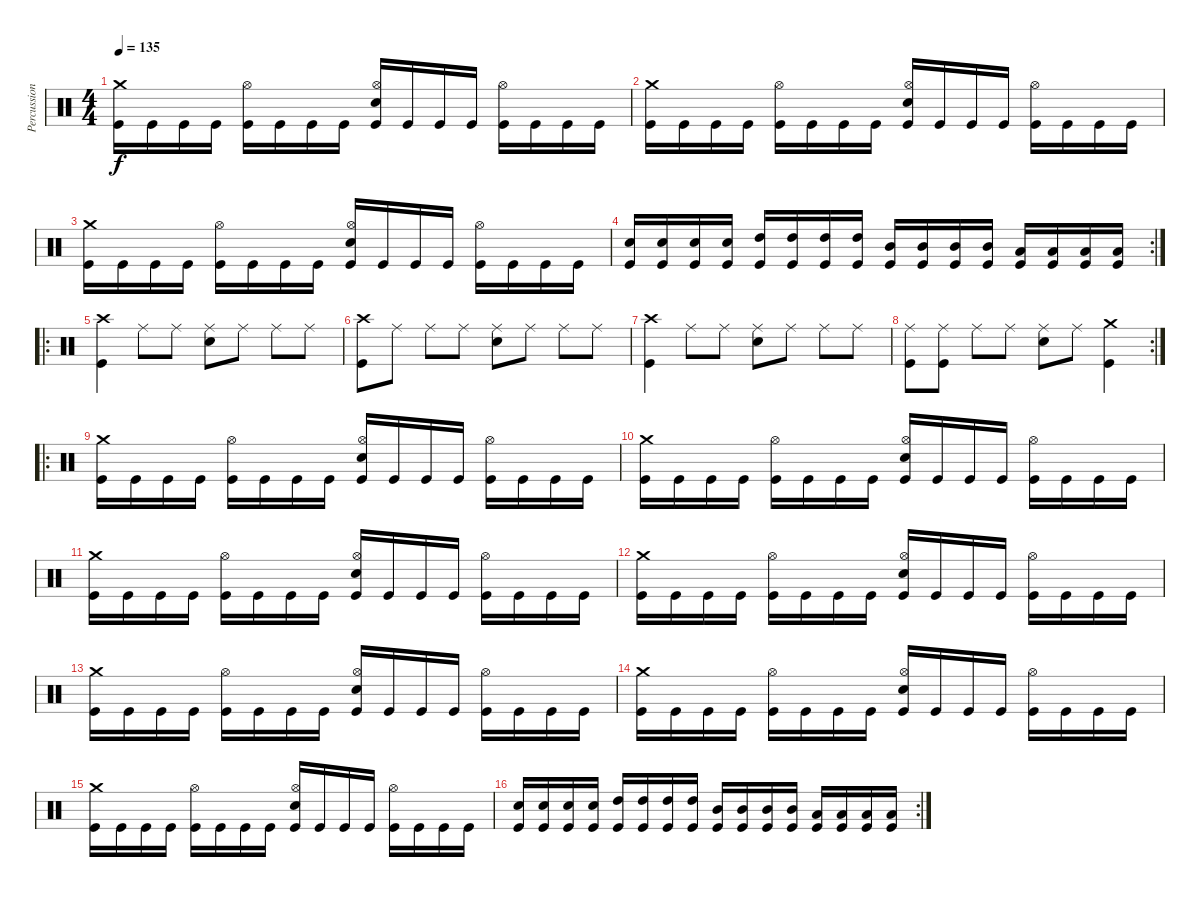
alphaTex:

\track ("Percussion" "Percussion") {instrument percussion}
\staff {score}
\articulation defaults
\ts (4 4)
\tempo 135
\clef neutral
\ks c
("Crash medium (hit)" "Kick (hit)").16{dy f} "Kick (hit)".16 "Kick (hit)".16 "Kick (hit)".16 ("Hi-Hat (open)" "Kick (hit)").16 "Kick (hit)".16 "Kick (hit)".16 "Kick (hit)".16 ("Hi-Hat (open)" "Electric Snare (hit)" "Kick (hit)").16 "Kick (hit)".16 "Kick (hit)".16 "Kick (hit)".16 ("Hi-Hat (open)" "Kick (hit)").16 "Kick (hit)".16 "Kick (hit)".16 "Kick (hit)".16 |
("Crash medium (hit)" "Kick (hit)").16 "Kick (hit)".16 "Kick (hit)".16 "Kick (hit)".16 ("Hi-Hat (open)" "Kick (hit)").16 "Kick (hit)".16 "Kick (hit)".16 "Kick (hit)".16 ("Hi-Hat (open)" "Electric Snare (hit)" "Kick (hit)").16 "Kick (hit)".16 "Kick (hit)".16 "Kick (hit)".16 ("Hi-Hat (open)" "Kick (hit)").16 "Kick (hit)".16 "Kick (hit)".16 "Kick (hit)".16 |
("Crash medium (hit)" "Kick (hit)").16 "Kick (hit)".16 "Kick (hit)".16 "Kick (hit)".16 ("Hi-Hat (open)" "Kick (hit)").16 "Kick (hit)".16 "Kick (hit)".16 "Kick (hit)".16 ("Hi-Hat (open)" "Electric Snare (hit)" "Kick (hit)").16 "Kick (hit)".16 "Kick (hit)".16 "Kick (hit)".16 ("Hi-Hat (open)" "Kick (hit)").16 "Kick (hit)".16 "Kick (hit)".16 "Kick (hit)".16 |
\rc 2
("Electric Snare (hit)" "Kick (hit)").16 ("Electric Snare (hit)" "Kick (hit)").16 ("Electric Snare (hit)" "Kick (hit)").16 ("Electric Snare (hit)" "Kick (hit)").16 ("High Tom (hit)" "Kick (hit)").16 ("High Tom (hit)" "Kick (hit)").16 ("High Tom (hit)" "Kick (hit)").16 ("High Tom (hit)" "Kick (hit)").16 ("Mid Tom (hit)" "Kick (hit)").16 ("Mid Tom (hit)" "Kick (hit)").16 ("Mid Tom (hit)" "Kick (hit)").16 ("Mid Tom (hit)" "Kick (hit)").16 ("Low Tom (hit)" "Kick (hit)").16 ("Low Tom (hit)" "Kick (hit)").16 ("Low Tom (hit)" "Kick (hit)").16 ("Low Tom (hit)" "Kick (hit)").16 |
\ro
("Crash high (hit)" "Kick (hit)").4 "Ride (middle)".8 "Ride (middle)".8 ("Ride (middle)" "Electric Snare (hit)").8 "Ride (middle)".8 "Ride (middle)".8 "Ride (middle)".8 |
("Crash high (hit)" "Kick (hit)").8 "Ride (middle)".8 "Ride (middle)".8 "Ride (middle)".8 ("Ride (middle)" "Electric Snare (hit)").8 "Ride (middle)".8 "Ride (middle)".8 "Ride (middle)".8 |
("Crash high (hit)" "Kick (hit)").4 "Ride (middle)".8 "Ride (middle)".8 ("Ride (middle)" "Electric Snare (hit)").8 "Ride (middle)".8 "Ride (middle)".8 "Ride (middle)".8 |
\rc 2
("Ride (middle)" "Kick (hit)").8 ("Ride (middle)" "Kick (hit)").8 "Ride (middle)".8 "Ride (middle)".8 ("Ride (middle)" "Electric Snare (hit)").8 "Ride (middle)".8 ("Crash medium (hit)" "Kick (hit)").4 |
\ro
("Crash medium (hit)" "Kick (hit)").16 "Kick (hit)".16 "Kick (hit)".16 "Kick (hit)".16 ("Hi-Hat (open)" "Kick (hit)").16 "Kick (hit)".16 "Kick (hit)".16 "Kick (hit)".16 ("Hi-Hat (open)" "Electric Snare (hit)" "Kick (hit)").16 "Kick (hit)".16 "Kick (hit)".16 "Kick (hit)".16 ("Hi-Hat (open)" "Kick (hit)").16 "Kick (hit)".16 "Kick (hit)".16 "Kick (hit)".16 |
("Crash medium (hit)" "Kick (hit)").16 "Kick (hit)".16 "Kick (hit)".16 "Kick (hit)".16 ("Hi-Hat (open)" "Kick (hit)").16 "Kick (hit)".16 "Kick (hit)".16 "Kick (hit)".16 ("Hi-Hat (open)" "Electric Snare (hit)" "Kick (hit)").16 "Kick (hit)".16 "Kick (hit)".16 "Kick (hit)".16 ("Hi-Hat (open)" "Kick (hit)").16 "Kick (hit)".16 "Kick (hit)".16 "Kick (hit)".16 |
("Crash medium (hit)" "Kick (hit)").16 "Kick (hit)".16 "Kick (hit)".16 "Kick (hit)".16 ("Hi-Hat (open)" "Kick (hit)").16 "Kick (hit)".16 "Kick (hit)".16 "Kick (hit)".16 ("Hi-Hat (open)" "Electric Snare (hit)" "Kick (hit)").16 "Kick (hit)".16 "Kick (hit)".16 "Kick (hit)".16 ("Hi-Hat (open)" "Kick (hit)").16 "Kick (hit)".16 "Kick (hit)".16 "Kick (hit)".16 |
("Crash medium (hit)" "Kick (hit)").16 "Kick (hit)".16 "Kick (hit)".16 "Kick (hit)".16 ("Hi-Hat (open)" "Kick (hit)").16 "Kick (hit)".16 "Kick (hit)".16 "Kick (hit)".16 ("Hi-Hat (open)" "Electric Snare (hit)" "Kick (hit)").16 "Kick (hit)".16 "Kick (hit)".16 "Kick (hit)".16 ("Hi-Hat (open)" "Kick (hit)").16 "Kick (hit)".16 "Kick (hit)".16 "Kick (hit)".16 |
("Crash medium (hit)" "Kick (hit)").16 "Kick (hit)".16 "Kick (hit)".16 "Kick (hit)".16 ("Hi-Hat (open)" "Kick (hit)").16 "Kick (hit)".16 "Kick (hit)".16 "Kick (hit)".16 ("Hi-Hat (open)" "Electric Snare (hit)" "Kick (hit)").16 "Kick (hit)".16 "Kick (hit)".16 "Kick (hit)".16 ("Hi-Hat (open)" "Kick (hit)").16 "Kick (hit)".16 "Kick (hit)".16 "Kick (hit)".16 |
("Crash medium (hit)" "Kick (hit)").16 "Kick (hit)".16 "Kick (hit)".16 "Kick (hit)".16 ("Hi-Hat (open)" "Kick (hit)").16 "Kick (hit)".16 "Kick (hit)".16 "Kick (hit)".16 ("Hi-Hat (open)" "Electric Snare (hit)" "Kick (hit)").16 "Kick (hit)".16 "Kick (hit)".16 "Kick (hit)".16 ("Hi-Hat (open)" "Kick (hit)").16 "Kick (hit)".16 "Kick (hit)".16 "Kick (hit)".16 |
("Crash medium (hit)" "Kick (hit)").16 "Kick (hit)".16 "Kick (hit)".16 "Kick (hit)".16 ("Hi-Hat (open)" "Kick (hit)").16 "Kick (hit)".16 "Kick (hit)".16 "Kick (hit)".16 ("Hi-Hat (open)" "Electric Snare (hit)" "Kick (hit)").16 "Kick (hit)".16 "Kick (hit)".16 "Kick (hit)".16 ("Hi-Hat (open)" "Kick (hit)").16 "Kick (hit)".16 "Kick (hit)".16 "Kick (hit)".16 |
\rc 2
("Electric Snare (hit)" "Kick (hit)").16 ("Electric Snare (hit)" "Kick (hit)").16 ("Electric Snare (hit)" "Kick (hit)").16 ("Electric Snare (hit)" "Kick (hit)").16 ("High Tom (hit)" "Kick (hit)").16 ("High Tom (hit)" "Kick (hit)").16 ("High Tom (hit)" "Kick (hit)").16 ("High Tom (hit)" "Kick (hit)").16 ("Mid Tom (hit)" "Kick (hit)").16 ("Mid Tom (hit)" "Kick (hit)").16 ("Mid Tom (hit)" "Kick (hit)").16 ("Mid Tom (hit)" "Kick (hit)").16 ("Low Tom (hit)" "Kick (hit)").16 ("Low Tom (hit)" "Kick (hit)").16 ("Low Tom (hit)" "Kick (hit)").16 ("Low Tom (hit)" "Kick (hit)").16
